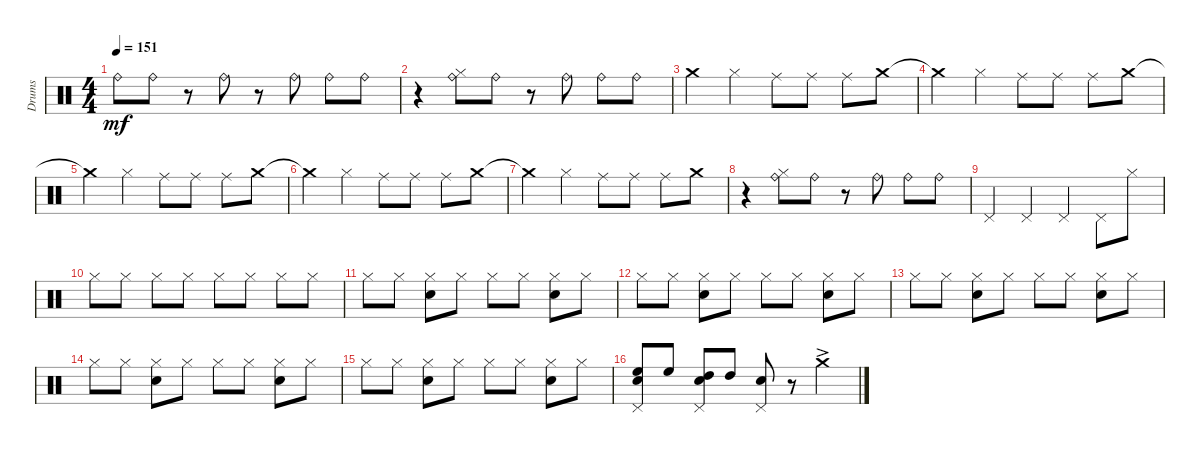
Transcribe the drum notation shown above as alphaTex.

\bracketExtendMode groupsimilarinstruments
\track ("Drumkit" "Drums") {instrument percussion}
\staff {score}
\articulation defaults
\ts (4 4)
\tempo 151
\clef neutral
\ks aminor "Ride (bell)".8{dy mf} "Ride (bell)".8
r.8 "Ride (bell)".8 r.8 "Ride (bell)".8 "Ride (bell)".8 "Ride (bell)".8 |
r.4 ("Ride (bell)" "Hi-Hat (closed)").8 "Ride (bell)".8 r.8 "Ride (bell)".8 "Ride (bell)".8 "Ride (bell)".8 |
"Crash medium (hit)".4 "Hi-Hat (closed)".4 "Ride (middle)".8 "Ride (middle)".8 "Ride (middle)".8 "Crash medium (hit)".8 |
"Crash medium (hit)"{t}.4 "Hi-Hat (closed)".4 "Ride (middle)".8 "Ride (middle)".8 "Ride (middle)".8 "Crash medium (hit)".8 |
"Crash medium (hit)"{t}.4 "Hi-Hat (closed)".4 "Ride (middle)".8 "Ride (middle)".8 "Ride (middle)".8 "Crash medium (hit)".8 |
"Crash medium (hit)"{t}.4 "Hi-Hat (closed)".4 "Ride (middle)".8 "Ride (middle)".8 "Ride (middle)".8 "Crash medium (hit)".8 |
"Crash medium (hit)"{t}.4 "Hi-Hat (closed)".4 "Ride (middle)".8 "Ride (middle)".8 "Ride (middle)".8 "Crash medium (hit)".8 |
r.4 ("Ride (bell)" "Hi-Hat (closed)").8 "Ride (bell)".8 r.8 "Ride (bell)".8 "Ride (bell)".8 "Ride (bell)".8 |
"Pedal Hi-Hat (hit)".4 "Pedal Hi-Hat (hit)".4 "Pedal Hi-Hat (hit)".4 "Pedal Hi-Hat (hit)".8 "Hi-Hat (closed)".8 |
"Hi-Hat (closed)".8 "Hi-Hat (closed)".8 "Hi-Hat (closed)".8 "Hi-Hat (closed)".8 "Hi-Hat (closed)".8 "Hi-Hat (closed)".8 "Hi-Hat (closed)".8 "Hi-Hat (closed)".8 |
"Hi-Hat (closed)".8 "Hi-Hat (closed)".8 ("Snare (hit) 2" "Hi-Hat (closed)").8 "Hi-Hat (closed)".8 "Hi-Hat (closed)".8 "Hi-Hat (closed)".8 ("Snare (hit) 2" "Hi-Hat (closed)").8 "Hi-Hat (closed)".8 |
"Hi-Hat (closed)".8 "Hi-Hat (closed)".8 ("Snare (hit) 2" "Hi-Hat (closed)").8 "Hi-Hat (closed)".8 "Hi-Hat (closed)".8 "Hi-Hat (closed)".8 ("Snare (hit) 2" "Hi-Hat (closed)").8 "Hi-Hat (closed)".8 |
"Hi-Hat (closed)".8 "Hi-Hat (closed)".8 ("Snare (hit) 2" "Hi-Hat (closed)").8 "Hi-Hat (closed)".8 "Hi-Hat (closed)".8 "Hi-Hat (closed)".8 ("Snare (hit) 2" "Hi-Hat (closed)").8 "Hi-Hat (closed)".8 |
"Hi-Hat (closed)".8 "Hi-Hat (closed)".8 ("Snare (hit) 2" "Hi-Hat (closed)").8 "Hi-Hat (closed)".8 "Hi-Hat (closed)".8 "Hi-Hat (closed)".8 ("Snare (hit) 2" "Hi-Hat (closed)").8 "Hi-Hat (closed)".8 |
"Hi-Hat (closed)".8 "Hi-Hat (closed)".8 ("Snare (hit) 2" "Hi-Hat (closed)").8 "Hi-Hat (closed)".8 "Hi-Hat (closed)".8 "Hi-Hat (closed)".8 ("Snare (hit) 2" "Hi-Hat (closed)").8 "Hi-Hat (closed)".8 |
("Pedal Hi-Hat (hit)" "Snare (hit) 2" "High Floor Tom (hit)").8 "High Floor Tom (hit)".8 ("Pedal Hi-Hat (hit)" "Snare (hit) 2" "High Tom (hit)").8 "High Tom (hit)".8 ("Pedal Hi-Hat (hit)" "Snare (hit) 2").8 r.8 "Crash medium (hit)"{ac}.4
